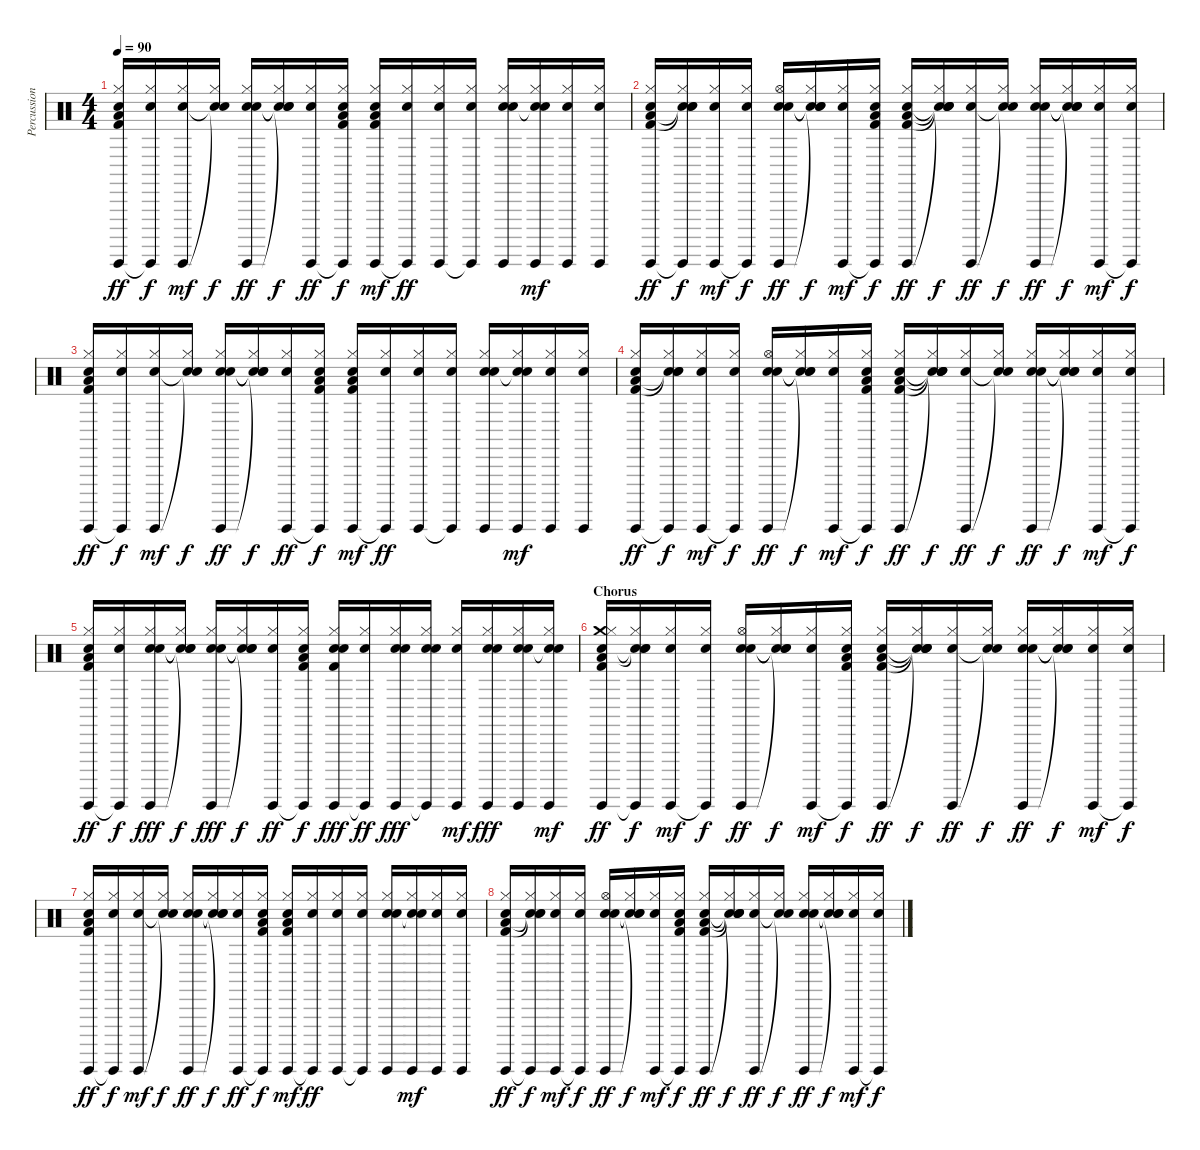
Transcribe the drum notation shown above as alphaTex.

\track ("Percussion" "Percussion") {instrument percussion}
\staff {score}
\articulation defaults
\ts (4 4)
\tempo 90
\clef neutral
\ks c
("Guiro (hit)" "Hi-Hat (closed)" "Hand Clap (hit)" "Low Floor Tom (hit)" "Kick (hit) 2").16{dy ff} ("Guiro (hit)"{t} "Hi-Hat (closed)" "Hand Clap (hit)").16{dy f} ("Guiro (hit)" "Hi-Hat (closed)" "Hand Clap (hit)").16{dy mf} ("Snare (hit)"{t} "Hi-Hat (closed)" "Snare (hit)"{t}).16{dy f} ("Guiro (hit)" "Hi-Hat (closed)" "Hand Clap (hit)" "Snare (hit) 2").16{dy ff} ("Snare (hit)"{t} "Hi-Hat (closed)" "Snare (hit)"{t} "Snare (hit)"{t}).16{dy f} ("Guiro (hit)" "Hi-Hat (closed)" "Hand Clap (hit)").16{dy ff} ("Guiro (hit)"{t} "Hi-Hat (closed)" "Hand Clap (hit)" "Low Floor Tom (hit)" "Kick (hit) 2").16{dy f} ("Guiro (hit)" "Hi-Hat (closed)" "Hand Clap (hit)" "Low Floor Tom (hit)" "Kick (hit) 2").16{dy mf} ("Guiro (hit)"{t} "Hi-Hat (closed)" "Hand Clap (hit)").16{dy ff} ("Guiro (hit)" "Hi-Hat (closed)" "Hand Clap (hit)").16 ("Guiro (hit)"{t} "Hi-Hat (closed)" "Hand Clap (hit)").16 ("Guiro (hit)" "Hi-Hat (closed)" "Hand Clap (hit)" "Snare (hit) 2").16 ("Guiro (hit)" "Hi-Hat (closed)" "Hand Clap (hit)" "Snare (hit)"{t}).16{dy mf} ("Guiro (hit)" "Hi-Hat (closed)" "Hand Clap (hit)").16 ("Guiro (hit)" "Hi-Hat (closed)" "Hand Clap (hit)").16 |
("Guiro (hit)" "Hi-Hat (closed)" "Hand Clap (hit)" "Low Floor Tom (hit)" "Kick (hit) 2").16{dy ff} ("Guiro (hit)"{t} "Hi-Hat (closed)" "Hand Clap (hit)" "Snare (hit)"{t} "Snare (hit)"{t}).16{dy f} ("Guiro (hit)" "Hi-Hat (closed)" "Hand Clap (hit)").16{dy mf} ("Guiro (hit)"{t} "Hi-Hat (closed)" "Hand Clap (hit)").16{dy f} ("Guiro (hit)" "Hi-Hat (open)" "Hand Clap (hit)" "Snare (hit) 2").16{dy ff} ("Snare (hit)"{t} "Hi-Hat (closed)" "Snare (hit)"{t} "Snare (hit)"{t}).16{dy f} ("Guiro (hit)" "Hi-Hat (closed)" "Hand Clap (hit)").16{dy mf} ("Guiro (hit)"{t} "Hi-Hat (closed)" "Hand Clap (hit)" "Low Floor Tom (hit)" "Kick (hit) 2").16{dy f} ("Guiro (hit)" "Hi-Hat (closed)" "Hand Clap (hit)" "Low Floor Tom (hit)" "Kick (hit) 2").16{dy ff} ("Snare (hit)"{t} "Hi-Hat (closed)" "Snare (hit)"{t} "Snare (hit)"{t} "Snare (hit)"{t}).16{dy f} ("Guiro (hit)" "Hi-Hat (closed)" "Hand Clap (hit)").16{dy ff} ("Snare (hit)"{t} "Hi-Hat (closed)" "Snare (hit)"{t}).16{dy f} ("Guiro (hit)" "Hi-Hat (closed)" "Hand Clap (hit)" "Snare (hit) 2").16{dy ff} ("Snare (hit)"{t} "Hi-Hat (closed)" "Snare (hit)"{t} "Snare (hit)"{t}).16{dy f} ("Guiro (hit)" "Hi-Hat (closed)" "Hand Clap (hit)").16{dy mf} ("Guiro (hit)"{t} "Hi-Hat (closed)" "Hand Clap (hit)").16{dy f} |
("Guiro (hit)" "Hi-Hat (closed)" "Hand Clap (hit)" "Low Floor Tom (hit)" "Kick (hit) 2").16{dy ff} ("Guiro (hit)"{t} "Hi-Hat (closed)" "Hand Clap (hit)").16{dy f} ("Guiro (hit)" "Hi-Hat (closed)" "Hand Clap (hit)").16{dy mf} ("Snare (hit)"{t} "Hi-Hat (closed)" "Snare (hit)"{t}).16{dy f} ("Guiro (hit)" "Hi-Hat (closed)" "Hand Clap (hit)" "Snare (hit) 2").16{dy ff} ("Snare (hit)"{t} "Hi-Hat (closed)" "Snare (hit)"{t} "Snare (hit)"{t}).16{dy f} ("Guiro (hit)" "Hi-Hat (closed)" "Hand Clap (hit)").16{dy ff} ("Guiro (hit)"{t} "Hi-Hat (closed)" "Hand Clap (hit)" "Low Floor Tom (hit)" "Kick (hit) 2").16{dy f} ("Guiro (hit)" "Hi-Hat (closed)" "Hand Clap (hit)" "Low Floor Tom (hit)" "Kick (hit) 2").16{dy mf} ("Guiro (hit)"{t} "Hi-Hat (closed)" "Hand Clap (hit)").16{dy ff} ("Guiro (hit)" "Hi-Hat (closed)" "Hand Clap (hit)").16 ("Guiro (hit)"{t} "Hi-Hat (closed)" "Hand Clap (hit)").16 ("Guiro (hit)" "Hi-Hat (closed)" "Hand Clap (hit)" "Snare (hit) 2").16 ("Guiro (hit)" "Hi-Hat (closed)" "Hand Clap (hit)" "Snare (hit)"{t}).16{dy mf} ("Guiro (hit)" "Hi-Hat (closed)" "Hand Clap (hit)").16 ("Guiro (hit)" "Hi-Hat (closed)" "Hand Clap (hit)").16 |
("Guiro (hit)" "Hi-Hat (closed)" "Hand Clap (hit)" "Low Floor Tom (hit)" "Kick (hit) 2").16{dy ff} ("Guiro (hit)"{t} "Hi-Hat (closed)" "Hand Clap (hit)" "Snare (hit)"{t} "Snare (hit)"{t}).16{dy f} ("Guiro (hit)" "Hi-Hat (closed)" "Hand Clap (hit)").16{dy mf} ("Guiro (hit)"{t} "Hi-Hat (closed)" "Hand Clap (hit)").16{dy f} ("Guiro (hit)" "Hi-Hat (open)" "Hand Clap (hit)" "Snare (hit) 2").16{dy ff} ("Snare (hit)"{t} "Hi-Hat (closed)" "Snare (hit)"{t} "Snare (hit)"{t}).16{dy f} ("Guiro (hit)" "Hi-Hat (closed)" "Hand Clap (hit)").16{dy mf} ("Guiro (hit)"{t} "Hi-Hat (closed)" "Hand Clap (hit)" "Low Floor Tom (hit)" "Kick (hit) 2").16{dy f} ("Guiro (hit)" "Hi-Hat (closed)" "Hand Clap (hit)" "Low Floor Tom (hit)" "Kick (hit) 2").16{dy ff} ("Snare (hit)"{t} "Hi-Hat (closed)" "Snare (hit)"{t} "Snare (hit)"{t} "Snare (hit)"{t}).16{dy f} ("Guiro (hit)" "Hi-Hat (closed)" "Hand Clap (hit)").16{dy ff} ("Snare (hit)"{t} "Hi-Hat (closed)" "Snare (hit)"{t}).16{dy f} ("Guiro (hit)" "Hi-Hat (closed)" "Hand Clap (hit)" "Snare (hit) 2").16{dy ff} ("Snare (hit)"{t} "Hi-Hat (closed)" "Snare (hit)"{t} "Snare (hit)"{t}).16{dy f} ("Guiro (hit)" "Hi-Hat (closed)" "Hand Clap (hit)").16{dy mf} ("Guiro (hit)"{t} "Hi-Hat (closed)" "Hand Clap (hit)").16{dy f} |
("Guiro (hit)" "Hi-Hat (closed)" "Hand Clap (hit)" "Low Floor Tom (hit)" "Kick (hit) 2").16{dy ff} ("Guiro (hit)"{t} "Hi-Hat (closed)" "Hand Clap (hit)").16{dy f} ("Guiro (hit)" "Hi-Hat (closed)" "Hand Clap (hit)" "Snare (hit) 2").16{dy fff} ("Snare (hit)"{t} "Hi-Hat (closed)" "Snare (hit)"{t} "Snare (hit)"{t}).16{dy f} ("Guiro (hit)" "Hi-Hat (closed)" "Hand Clap (hit)" "Snare (hit) 2").16{dy fff} ("Snare (hit)"{t} "Hi-Hat (closed)" "Snare (hit)"{t} "Snare (hit)"{t}).16{dy f} ("Guiro (hit)" "Hi-Hat (closed)" "Hand Clap (hit)").16{dy ff} ("Guiro (hit)"{t} "Hi-Hat (closed)" "Hand Clap (hit)" "Low Floor Tom (hit)" "Kick (hit) 2").16{dy f} ("Guiro (hit)" "Hi-Hat (closed)" "Hand Clap (hit)" "Snare (hit) 2" "Kick (hit) 2").16{dy fff} ("Guiro (hit)"{t} "Hi-Hat (closed)" "Hand Clap (hit)").16{dy ff} ("Guiro (hit)" "Hi-Hat (closed)" "Hand Clap (hit)" "Snare (hit) 2").16{dy fff} ("Guiro (hit)"{t} "Hi-Hat (closed)" "Hand Clap (hit)" "Snare (hit) 2").16 ("Guiro (hit)" "Hi-Hat (closed)" "Hand Clap (hit)").16{dy mf} ("Guiro (hit)" "Hi-Hat (closed)" "Hand Clap (hit)" "Snare (hit) 2").16{dy fff} ("Guiro (hit)" "Hi-Hat (closed)" "Hand Clap (hit)" "Snare (hit) 2").16 ("Guiro (hit)" "Hi-Hat (closed)" "Hand Clap (hit)" "Snare (hit)"{t}).16{dy mf} |
\section ("" "Chorus")
("Guiro (hit)" "Crash medium (hit)" "Hi-Hat (closed)" "Hand Clap (hit)" "Low Floor Tom (hit)" "Kick (hit) 2").16{dy ff} ("Guiro (hit)"{t} "Hi-Hat (closed)" "Hand Clap (hit)" "Snare (hit)"{t} "Snare (hit)"{t}).16{dy f} ("Guiro (hit)" "Hi-Hat (closed)" "Hand Clap (hit)").16{dy mf} ("Guiro (hit)"{t} "Hi-Hat (closed)" "Hand Clap (hit)").16{dy f} ("Guiro (hit)" "Hi-Hat (open)" "Hand Clap (hit)" "Snare (hit) 2").16{dy ff} ("Snare (hit)"{t} "Hi-Hat (closed)" "Snare (hit)"{t} "Snare (hit)"{t}).16{dy f} ("Guiro (hit)" "Hi-Hat (closed)" "Hand Clap (hit)").16{dy mf} ("Guiro (hit)"{t} "Hi-Hat (closed)" "Hand Clap (hit)" "Low Floor Tom (hit)" "Kick (hit) 2").16{dy f} ("Guiro (hit)" "Hi-Hat (closed)" "Hand Clap (hit)" "Low Floor Tom (hit)" "Kick (hit) 2").16{dy ff} ("Snare (hit)"{t} "Hi-Hat (closed)" "Snare (hit)"{t} "Snare (hit)"{t} "Snare (hit)"{t}).16{dy f} ("Guiro (hit)" "Hi-Hat (closed)" "Hand Clap (hit)").16{dy ff} ("Snare (hit)"{t} "Hi-Hat (closed)" "Snare (hit)"{t}).16{dy f} ("Guiro (hit)" "Hi-Hat (closed)" "Hand Clap (hit)" "Snare (hit) 2").16{dy ff} ("Snare (hit)"{t} "Hi-Hat (closed)" "Snare (hit)"{t} "Snare (hit)"{t}).16{dy f} ("Guiro (hit)" "Hi-Hat (closed)" "Hand Clap (hit)").16{dy mf} ("Guiro (hit)"{t} "Hi-Hat (closed)" "Hand Clap (hit)").16{dy f} |
("Guiro (hit)" "Hi-Hat (closed)" "Hand Clap (hit)" "Low Floor Tom (hit)" "Kick (hit) 2").16{dy ff} ("Guiro (hit)"{t} "Hi-Hat (closed)" "Hand Clap (hit)").16{dy f} ("Guiro (hit)" "Hi-Hat (closed)" "Hand Clap (hit)").16{dy mf} ("Snare (hit)"{t} "Hi-Hat (closed)" "Snare (hit)"{t}).16{dy f} ("Guiro (hit)" "Hi-Hat (closed)" "Hand Clap (hit)" "Snare (hit) 2").16{dy ff} ("Snare (hit)"{t} "Hi-Hat (closed)" "Snare (hit)"{t} "Snare (hit)"{t}).16{dy f} ("Guiro (hit)" "Hi-Hat (closed)" "Hand Clap (hit)").16{dy ff} ("Guiro (hit)"{t} "Hi-Hat (closed)" "Hand Clap (hit)" "Low Floor Tom (hit)" "Kick (hit) 2").16{dy f} ("Guiro (hit)" "Hi-Hat (closed)" "Hand Clap (hit)" "Low Floor Tom (hit)" "Kick (hit) 2").16{dy mf} ("Guiro (hit)"{t} "Hi-Hat (closed)" "Hand Clap (hit)").16{dy ff} ("Guiro (hit)" "Hi-Hat (closed)" "Hand Clap (hit)").16 ("Guiro (hit)"{t} "Hi-Hat (closed)" "Hand Clap (hit)").16 ("Guiro (hit)" "Hi-Hat (closed)" "Hand Clap (hit)" "Snare (hit) 2").16 ("Guiro (hit)" "Hi-Hat (closed)" "Hand Clap (hit)" "Snare (hit)"{t}).16{dy mf} ("Guiro (hit)" "Hi-Hat (closed)" "Hand Clap (hit)").16 ("Guiro (hit)" "Hi-Hat (closed)" "Hand Clap (hit)").16 |
("Guiro (hit)" "Hi-Hat (closed)" "Hand Clap (hit)" "Low Floor Tom (hit)" "Kick (hit) 2").16{dy ff} ("Guiro (hit)"{t} "Hi-Hat (closed)" "Hand Clap (hit)" "Snare (hit)"{t} "Snare (hit)"{t}).16{dy f} ("Guiro (hit)" "Hi-Hat (closed)" "Hand Clap (hit)").16{dy mf} ("Guiro (hit)"{t} "Hi-Hat (closed)" "Hand Clap (hit)").16{dy f} ("Guiro (hit)" "Hi-Hat (open)" "Hand Clap (hit)" "Snare (hit) 2").16{dy ff} ("Snare (hit)"{t} "Hi-Hat (closed)" "Snare (hit)"{t} "Snare (hit)"{t}).16{dy f} ("Guiro (hit)" "Hi-Hat (closed)" "Hand Clap (hit)").16{dy mf} ("Guiro (hit)"{t} "Hi-Hat (closed)" "Hand Clap (hit)" "Low Floor Tom (hit)" "Kick (hit) 2").16{dy f} ("Guiro (hit)" "Hi-Hat (closed)" "Hand Clap (hit)" "Low Floor Tom (hit)" "Kick (hit) 2").16{dy ff} ("Snare (hit)"{t} "Hi-Hat (closed)" "Snare (hit)"{t} "Snare (hit)"{t} "Snare (hit)"{t}).16{dy f} ("Guiro (hit)" "Hi-Hat (closed)" "Hand Clap (hit)").16{dy ff} ("Snare (hit)"{t} "Hi-Hat (closed)" "Snare (hit)"{t}).16{dy f} ("Guiro (hit)" "Hi-Hat (closed)" "Hand Clap (hit)" "Snare (hit) 2").16{dy ff} ("Snare (hit)"{t} "Hi-Hat (closed)" "Snare (hit)"{t} "Snare (hit)"{t}).16{dy f} ("Guiro (hit)" "Hi-Hat (closed)" "Hand Clap (hit)").16{dy mf} ("Guiro (hit)"{t} "Hi-Hat (closed)" "Hand Clap (hit)").16{dy f}
